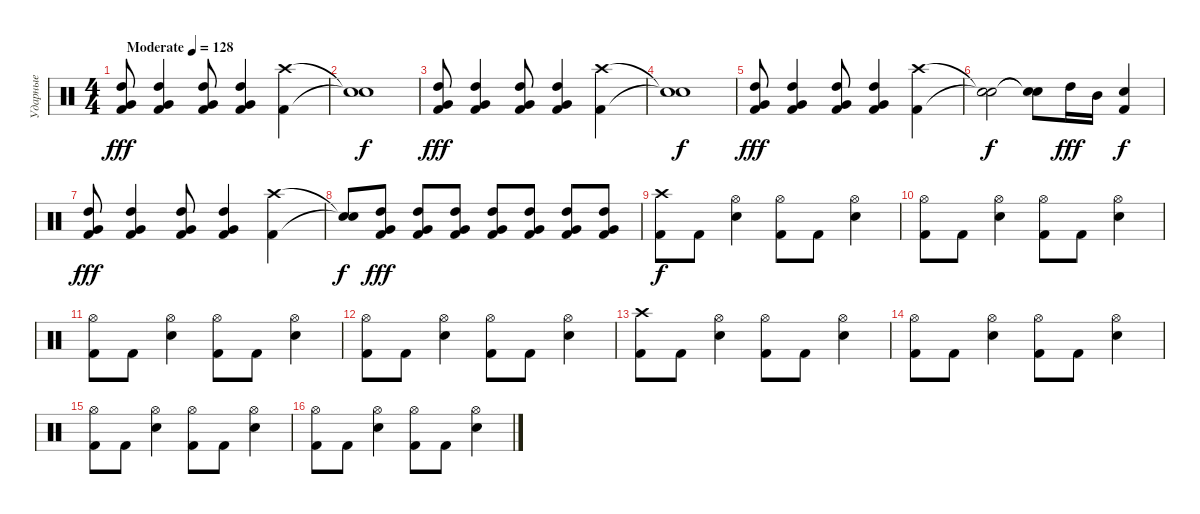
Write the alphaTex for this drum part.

\track ("Ударные" "Ударные") {instrument percussion}
\staff {score}
\articulation defaults
\ts (4 4)
\tempo (128 "Moderate")
\clef neutral
\ks c
("High Tom (hit)" "Very Low Tom (hit)" "Kick (hit) 2").8{dy fff} ("High Tom (hit)" "Very Low Tom (hit)" "Kick (hit) 2").4 ("High Tom (hit)" "Very Low Tom (hit)" "Kick (hit) 2").8 ("High Tom (hit)" "Very Low Tom (hit)" "Kick (hit) 2").4 ("Crash high (hit)" "Kick (hit) 2").4 |
("Snare (hit)"{t} "Snare (hit)"{t}).1{dy f} |
("High Tom (hit)" "Very Low Tom (hit)" "Kick (hit) 2").8{dy fff} ("High Tom (hit)" "Very Low Tom (hit)" "Kick (hit) 2").4 ("High Tom (hit)" "Very Low Tom (hit)" "Kick (hit) 2").8 ("High Tom (hit)" "Very Low Tom (hit)" "Kick (hit) 2").4 ("Crash high (hit)" "Kick (hit) 2").4 |
("Snare (hit)"{t} "Snare (hit)"{t}).1{dy f} |
("High Tom (hit)" "Very Low Tom (hit)" "Kick (hit) 2").8{dy fff} ("High Tom (hit)" "Very Low Tom (hit)" "Kick (hit) 2").4 ("High Tom (hit)" "Very Low Tom (hit)" "Kick (hit) 2").8 ("High Tom (hit)" "Very Low Tom (hit)" "Kick (hit) 2").4 ("Crash high (hit)" "Kick (hit) 2").4 |
("Snare (hit)"{t} "Snare (hit)"{t}).2{dy f} ("Snare (hit)"{t} "Snare (hit)"{t}).8 "High Tom (hit)".16{dy fff} "Mid Tom (hit)".16 ("Snare (hit) 2" "Kick (hit) 2").4{dy f} |
("High Tom (hit)" "Very Low Tom (hit)" "Kick (hit) 2").8{dy fff} ("High Tom (hit)" "Very Low Tom (hit)" "Kick (hit) 2").4 ("High Tom (hit)" "Very Low Tom (hit)" "Kick (hit) 2").8 ("High Tom (hit)" "Very Low Tom (hit)" "Kick (hit) 2").4 ("Crash high (hit)" "Kick (hit) 2").4 |
("Snare (hit)"{t} "Snare (hit)"{t}).8{dy f} ("High Tom (hit)" "Very Low Tom (hit)" "Kick (hit) 2").8{dy fff} ("High Tom (hit)" "Very Low Tom (hit)" "Kick (hit) 2").8 ("High Tom (hit)" "Very Low Tom (hit)" "Kick (hit) 2").8 ("High Tom (hit)" "Very Low Tom (hit)" "Kick (hit) 2").8 ("High Tom (hit)" "Very Low Tom (hit)" "Kick (hit) 2").8 ("High Tom (hit)" "Very Low Tom (hit)" "Kick (hit) 2").8 ("High Tom (hit)" "Very Low Tom (hit)" "Kick (hit) 2").8 |
("Crash high (hit)" "Kick (hit) 2").8{dy f} "Kick (hit) 2".8 ("Hi-Hat (open)" "Snare (hit) 2").4 ("Hi-Hat (open)" "Kick (hit) 2").8 "Kick (hit) 2".8 ("Hi-Hat (open)" "Snare (hit) 2").4 |
("Hi-Hat (open)" "Kick (hit) 2").8 "Kick (hit) 2".8 ("Hi-Hat (open)" "Snare (hit) 2").4 ("Hi-Hat (open)" "Kick (hit) 2").8 "Kick (hit) 2".8 ("Hi-Hat (open)" "Snare (hit) 2").4 |
("Hi-Hat (open)" "Kick (hit) 2").8 "Kick (hit) 2".8 ("Hi-Hat (open)" "Snare (hit) 2").4 ("Hi-Hat (open)" "Kick (hit) 2").8 "Kick (hit) 2".8 ("Hi-Hat (open)" "Snare (hit) 2").4 |
("Hi-Hat (open)" "Kick (hit) 2").8 "Kick (hit) 2".8 ("Hi-Hat (open)" "Snare (hit) 2").4 ("Hi-Hat (open)" "Kick (hit) 2").8 "Kick (hit) 2".8 ("Hi-Hat (open)" "Snare (hit) 2").4 |
("Crash high (hit)" "Kick (hit) 2").8 "Kick (hit) 2".8 ("Hi-Hat (open)" "Snare (hit) 2").4 ("Hi-Hat (open)" "Kick (hit) 2").8 "Kick (hit) 2".8 ("Hi-Hat (open)" "Snare (hit) 2").4 |
("Hi-Hat (open)" "Kick (hit) 2").8 "Kick (hit) 2".8 ("Hi-Hat (open)" "Snare (hit) 2").4 ("Hi-Hat (open)" "Kick (hit) 2").8 "Kick (hit) 2".8 ("Hi-Hat (open)" "Snare (hit) 2").4 |
("Hi-Hat (open)" "Kick (hit) 2").8 "Kick (hit) 2".8 ("Hi-Hat (open)" "Snare (hit) 2").4 ("Hi-Hat (open)" "Kick (hit) 2").8 "Kick (hit) 2".8 ("Hi-Hat (open)" "Snare (hit) 2").4 |
("Hi-Hat (open)" "Kick (hit) 2").8 "Kick (hit) 2".8 ("Hi-Hat (open)" "Snare (hit) 2").4 ("Hi-Hat (open)" "Kick (hit) 2").8 "Kick (hit) 2".8 ("Hi-Hat (open)" "Snare (hit) 2").4
